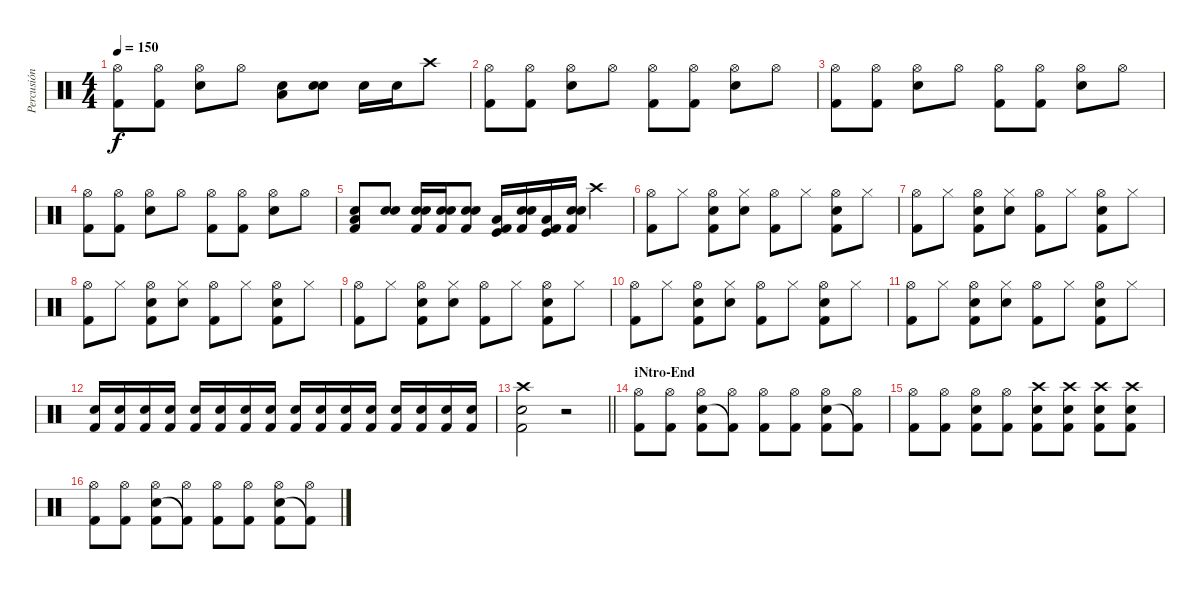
\track ("Percusión" "Percusión") {instrument percussion}
\staff {score}
\articulation defaults
\ts (4 4)
\tempo 150
\clef neutral
\ks c
("Hi-Hat (open)" "Kick (hit) 2").8{dy f} ("Hi-Hat (open)" "Kick (hit) 2").8 ("Hi-Hat (open)" "Snare (hit) 2").8 "Hi-Hat (open)".8 ("Snare (hit) 2" "Low Floor Tom (hit)").8 ("Electric Snare (hit)" "Snare (hit) 2").8 "Electric Snare (hit)".16 "Electric Snare (hit)".16 "Crash high (hit)".8 |
("Hi-Hat (open)" "Kick (hit) 2").8 ("Hi-Hat (open)" "Kick (hit) 2").8 ("Hi-Hat (open)" "Snare (hit) 2").8 "Hi-Hat (open)".8 ("Hi-Hat (open)" "Kick (hit) 2").8 ("Hi-Hat (open)" "Kick (hit) 2").8 ("Hi-Hat (open)" "Snare (hit) 2").8 "Hi-Hat (open)".8 |
("Hi-Hat (open)" "Kick (hit) 2").8 ("Hi-Hat (open)" "Kick (hit) 2").8 ("Hi-Hat (open)" "Snare (hit) 2").8 "Hi-Hat (open)".8 ("Hi-Hat (open)" "Kick (hit) 2").8 ("Hi-Hat (open)" "Kick (hit) 2").8 ("Hi-Hat (open)" "Snare (hit) 2").8 "Hi-Hat (open)".8 |
("Hi-Hat (open)" "Kick (hit) 2").8 ("Hi-Hat (open)" "Kick (hit) 2").8 ("Hi-Hat (open)" "Snare (hit) 2").8 "Hi-Hat (open)".8 ("Hi-Hat (open)" "Kick (hit) 2").8 ("Hi-Hat (open)" "Kick (hit) 2").8 ("Hi-Hat (open)" "Snare (hit) 2").8 "Hi-Hat (open)".8 |
("Snare (hit) 2" "Low Floor Tom (hit)" "Kick (hit) 2").8 ("Electric Snare (hit)" "Snare (hit) 2").8 ("Electric Snare (hit)" "Snare (hit) 2" "Kick (hit) 2").16 ("Electric Snare (hit)" "Snare (hit) 2" "Kick (hit) 2").16 ("Electric Snare (hit)" "Snare (hit) 2" "Kick (hit) 2").8 ("Low Floor Tom (hit)" "Kick (hit)" "Kick (hit) 2").16 ("Electric Snare (hit)" "Snare (hit) 2" "Kick (hit) 2").16 ("Low Floor Tom (hit)" "Kick (hit)" "Kick (hit) 2").16 ("Electric Snare (hit)" "Snare (hit) 2" "Kick (hit) 2").16 "Crash high (hit)".4 |
("Hi-Hat (open)" "Kick (hit) 2").8 "Hi-Hat (closed)".8 ("Hi-Hat (open)" "Hand Clap (hit)" "Kick (hit) 2").8 ("Hi-Hat (closed)" "Hand Clap (hit)").8 ("Hi-Hat (open)" "Kick (hit) 2").8 "Hi-Hat (closed)".8 ("Hi-Hat (open)" "Hand Clap (hit)" "Kick (hit) 2").8 "Hi-Hat (closed)".8 |
("Hi-Hat (open)" "Kick (hit) 2").8 "Hi-Hat (closed)".8 ("Hi-Hat (open)" "Hand Clap (hit)" "Kick (hit) 2").8 ("Hi-Hat (closed)" "Hand Clap (hit)").8 ("Hi-Hat (open)" "Kick (hit) 2").8 "Hi-Hat (closed)".8 ("Hi-Hat (open)" "Hand Clap (hit)" "Kick (hit) 2").8 "Hi-Hat (closed)".8 |
("Hi-Hat (open)" "Kick (hit) 2").8 "Hi-Hat (closed)".8 ("Hi-Hat (open)" "Hand Clap (hit)" "Kick (hit) 2").8 ("Hi-Hat (closed)" "Hand Clap (hit)").8 ("Hi-Hat (open)" "Kick (hit) 2").8 "Hi-Hat (closed)".8 ("Hi-Hat (open)" "Hand Clap (hit)" "Kick (hit) 2").8 "Hi-Hat (closed)".8 |
("Hi-Hat (open)" "Kick (hit) 2").8 "Hi-Hat (closed)".8 ("Hi-Hat (open)" "Hand Clap (hit)" "Kick (hit) 2").8 ("Hi-Hat (closed)" "Hand Clap (hit)").8 ("Hi-Hat (open)" "Kick (hit) 2").8 "Hi-Hat (closed)".8 ("Hi-Hat (open)" "Hand Clap (hit)" "Kick (hit) 2").8 "Hi-Hat (closed)".8 |
("Hi-Hat (open)" "Kick (hit) 2").8 "Hi-Hat (closed)".8 ("Hi-Hat (open)" "Hand Clap (hit)" "Kick (hit) 2").8 ("Hi-Hat (closed)" "Hand Clap (hit)").8 ("Hi-Hat (open)" "Kick (hit) 2").8 "Hi-Hat (closed)".8 ("Hi-Hat (open)" "Hand Clap (hit)" "Kick (hit) 2").8 "Hi-Hat (closed)".8 |
("Hi-Hat (open)" "Kick (hit) 2").8 "Hi-Hat (closed)".8 ("Hi-Hat (open)" "Hand Clap (hit)" "Kick (hit) 2").8 ("Hi-Hat (closed)" "Hand Clap (hit)").8 ("Hi-Hat (open)" "Kick (hit) 2").8 "Hi-Hat (closed)".8 ("Hi-Hat (open)" "Hand Clap (hit)" "Kick (hit) 2").8 "Hi-Hat (closed)".8 |
("Electric Snare (hit)" "Kick (hit) 2").16 ("Electric Snare (hit)" "Kick (hit) 2").16 ("Electric Snare (hit)" "Kick (hit) 2").16 ("Electric Snare (hit)" "Kick (hit) 2").16 ("Electric Snare (hit)" "Kick (hit) 2").16 ("Electric Snare (hit)" "Kick (hit) 2").16 ("Electric Snare (hit)" "Kick (hit) 2").16 ("Electric Snare (hit)" "Kick (hit) 2").16 ("Electric Snare (hit)" "Kick (hit) 2").16 ("Electric Snare (hit)" "Kick (hit) 2").16 ("Electric Snare (hit)" "Kick (hit) 2").16 ("Electric Snare (hit)" "Kick (hit) 2").16 ("Electric Snare (hit)" "Kick (hit) 2").16 ("Electric Snare (hit)" "Kick (hit) 2").16 ("Electric Snare (hit)" "Kick (hit) 2").16 ("Electric Snare (hit)" "Kick (hit) 2").16 |
\barLineRight lightlight
("Crash high (hit)" "Electric Snare (hit)" "Kick (hit) 2").2 r.2 |
\section ("" "iNtro-End")
("Hi-Hat (open)" "Kick (hit) 2").8 ("Hi-Hat (open)" "Kick (hit) 2").8 ("Hi-Hat (open)" "Snare (hit) 2" "Kick (hit) 2").8 ("Hi-Hat (open)" "Kick (hit) 2"{t}).8 ("Hi-Hat (open)" "Kick (hit) 2").8 ("Hi-Hat (open)" "Kick (hit) 2").8 ("Hi-Hat (open)" "Snare (hit) 2" "Kick (hit) 2").8 ("Hi-Hat (open)" "Kick (hit) 2"{t}).8 |
("Hi-Hat (open)" "Kick (hit) 2").8 ("Hi-Hat (open)" "Kick (hit) 2").8 ("Hi-Hat (open)" "Snare (hit) 2" "Kick (hit) 2").8 ("Hi-Hat (open)" "Kick (hit) 2").8 ("Crash high (hit)" "Snare (hit) 2" "Kick (hit) 2").8 ("Crash high (hit)" "Snare (hit) 2" "Kick (hit) 2").8 ("Crash high (hit)" "Snare (hit) 2" "Kick (hit) 2").8 ("Crash high (hit)" "Snare (hit) 2" "Kick (hit) 2").8 |
("Hi-Hat (open)" "Kick (hit) 2").8 ("Hi-Hat (open)" "Kick (hit) 2").8 ("Hi-Hat (open)" "Snare (hit) 2" "Kick (hit) 2").8 ("Hi-Hat (open)" "Kick (hit) 2"{t}).8 ("Hi-Hat (open)" "Kick (hit) 2").8 ("Hi-Hat (open)" "Kick (hit) 2").8 ("Hi-Hat (open)" "Snare (hit) 2" "Kick (hit) 2").8 ("Hi-Hat (open)" "Kick (hit) 2"{t}).8
